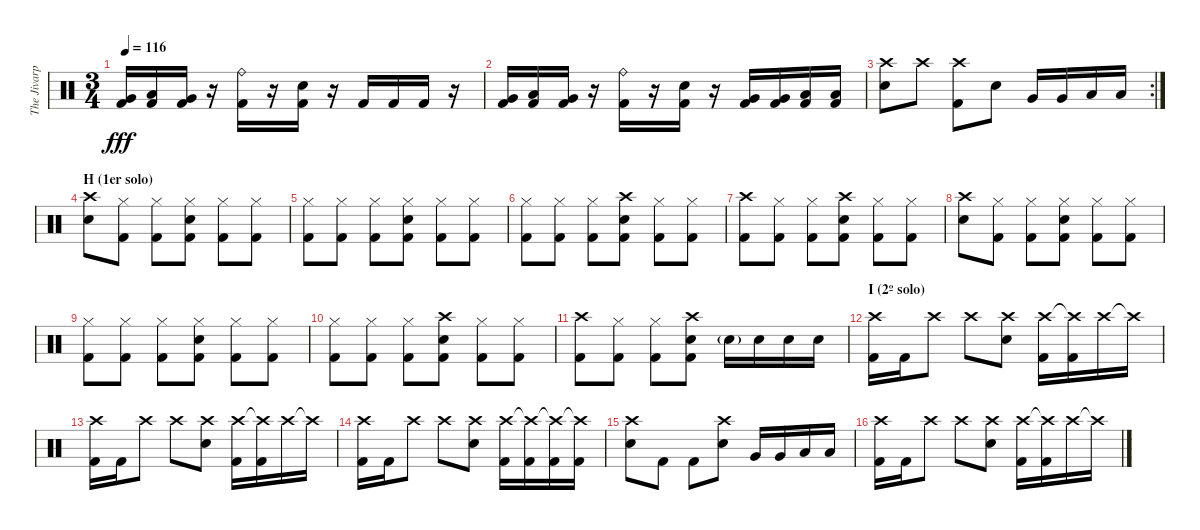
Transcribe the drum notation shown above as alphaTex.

\track ("The Jivarp" "The Jivarp") {instrument percussion}
\staff {score}
\articulation defaults
\ts (3 4)
\tempo 116
\clef neutral
\ks c
("Very Low Tom (hit)" "Kick (hit) 2").16{dy fff} ("Low Tom (hit)" "Kick (hit) 2").16 ("Very Low Tom (hit)" "Kick (hit) 2").16 r.16 ("Ride (bell)" "Kick (hit) 2").16 r.16 ("Electric Snare (hit)" "Kick (hit) 2").16 r.16 "Kick (hit) 2".16 "Kick (hit) 2".16 "Kick (hit) 2".16 r.16 |
("Very Low Tom (hit)" "Kick (hit) 2").16 ("Low Tom (hit)" "Kick (hit) 2").16 ("Very Low Tom (hit)" "Kick (hit) 2").16 r.16 ("Ride (bell)" "Kick (hit) 2").16 r.16 ("Electric Snare (hit)" "Kick (hit) 2").16 r.16 ("Very Low Tom (hit)" "Kick (hit) 2").16 ("Very Low Tom (hit)" "Kick (hit) 2").16 ("Low Tom (hit)" "Kick (hit) 2").16 ("Low Tom (hit)" "Kick (hit) 2").16 |
\rc 2
("Crash high (hit)" "Electric Snare (hit)").8 "Crash high (hit)".8 ("Crash high (hit)" "Kick (hit) 2").8 "Electric Snare (hit)".8 "Very Low Tom (hit)".16 "Very Low Tom (hit)".16 "Low Tom (hit)".16 "Low Tom (hit)".16 |
\section ("" "H (1er solo)")
("Crash high (hit)" "Electric Snare (hit)").8 ("Hi-Hat (closed)" "Kick (hit) 2").8 ("Hi-Hat (closed)" "Kick (hit) 2").8 ("Hi-Hat (closed)" "Electric Snare (hit)" "Kick (hit) 2").8 ("Hi-Hat (closed)" "Kick (hit) 2").8 ("Hi-Hat (closed)" "Kick (hit) 2").8 |
("Hi-Hat (closed)" "Kick (hit) 2").8 ("Hi-Hat (closed)" "Kick (hit) 2").8 ("Hi-Hat (closed)" "Kick (hit) 2").8 ("Hi-Hat (closed)" "Electric Snare (hit)" "Kick (hit) 2").8 ("Hi-Hat (closed)" "Kick (hit) 2").8 ("Hi-Hat (closed)" "Kick (hit) 2").8 |
("Hi-Hat (closed)" "Kick (hit) 2").8 ("Hi-Hat (closed)" "Kick (hit) 2").8 ("Hi-Hat (closed)" "Kick (hit) 2").8 ("Crash high (hit)" "Electric Snare (hit)" "Kick (hit) 2").8 ("Hi-Hat (closed)" "Kick (hit) 2").8 ("Hi-Hat (closed)" "Kick (hit) 2").8 |
("Crash high (hit)" "Kick (hit) 2").8 ("Hi-Hat (closed)" "Kick (hit) 2").8 ("Hi-Hat (closed)" "Kick (hit) 2").8 ("Crash high (hit)" "Electric Snare (hit)" "Kick (hit) 2").8 ("Hi-Hat (closed)" "Kick (hit) 2").8 ("Hi-Hat (closed)" "Kick (hit) 2").8 |
("Crash high (hit)" "Electric Snare (hit)").8 ("Hi-Hat (closed)" "Kick (hit) 2").8 ("Hi-Hat (closed)" "Kick (hit) 2").8 ("Hi-Hat (closed)" "Electric Snare (hit)" "Kick (hit) 2").8 ("Hi-Hat (closed)" "Kick (hit) 2").8 ("Hi-Hat (closed)" "Kick (hit) 2").8 |
("Hi-Hat (closed)" "Kick (hit) 2").8 ("Hi-Hat (closed)" "Kick (hit) 2").8 ("Hi-Hat (closed)" "Kick (hit) 2").8 ("Hi-Hat (closed)" "Electric Snare (hit)" "Kick (hit) 2").8 ("Hi-Hat (closed)" "Kick (hit) 2").8 ("Hi-Hat (closed)" "Kick (hit) 2").8 |
("Hi-Hat (closed)" "Kick (hit) 2").8 ("Hi-Hat (closed)" "Kick (hit) 2").8 ("Hi-Hat (closed)" "Kick (hit) 2").8 ("Crash high (hit)" "Electric Snare (hit)" "Kick (hit) 2").8 ("Hi-Hat (closed)" "Kick (hit) 2").8 ("Hi-Hat (closed)" "Kick (hit) 2").8 |
("Crash high (hit)" "Kick (hit) 2").8 ("Hi-Hat (closed)" "Kick (hit) 2").8 ("Hi-Hat (closed)" "Kick (hit) 2").8 ("Crash high (hit)" "Electric Snare (hit)" "Kick (hit) 2").8 "Electric Snare (hit)"{g}.16 "Electric Snare (hit)".16 "Electric Snare (hit)".16 "Electric Snare (hit)".16 |
\section ("" "I (2º solo)")
("Crash high (hit)" "Kick (hit) 2").16 "Kick (hit) 2".16 "Crash high (hit)".8 "Crash high (hit)".8 ("Crash high (hit)" "Electric Snare (hit)").8 ("Crash high (hit)" "Kick (hit) 2").16 ("Crash high (hit)"{t} "Kick (hit) 2").16 "Crash high (hit)".16 "Crash high (hit)"{t}.16 |
("Crash high (hit)" "Kick (hit) 2").16 "Kick (hit) 2".16 "Crash high (hit)".8 "Crash high (hit)".8 ("Crash high (hit)" "Electric Snare (hit)").8 ("Crash high (hit)" "Kick (hit) 2").16 ("Crash high (hit)"{t} "Kick (hit) 2").16 "Crash high (hit)".16 "Crash high (hit)"{t}.16 |
("Crash high (hit)" "Kick (hit) 2").16 "Kick (hit) 2".16 "Crash high (hit)".8 "Crash high (hit)".8 ("Crash high (hit)" "Electric Snare (hit)").8 ("Crash high (hit)" "Kick (hit) 2").16 ("Crash high (hit)"{t} "Kick (hit) 2").16 ("Crash high (hit)"{t} "Kick (hit) 2").16 ("Crash high (hit)"{t} "Kick (hit) 2").16 |
("Crash high (hit)" "Electric Snare (hit)").8 "Kick (hit) 2".8 "Kick (hit) 2".8 ("Crash high (hit)" "Electric Snare (hit)").8 "Very Low Tom (hit)".16 "Very Low Tom (hit)".16 "Low Tom (hit)".16 "Low Tom (hit)".16 |
("Crash high (hit)" "Kick (hit) 2").16 "Kick (hit) 2".16 "Crash high (hit)".8 "Crash high (hit)".8 ("Crash high (hit)" "Electric Snare (hit)").8 ("Crash high (hit)" "Kick (hit) 2").16 ("Crash high (hit)"{t} "Kick (hit) 2").16 "Crash high (hit)".16 "Crash high (hit)"{t}.16
